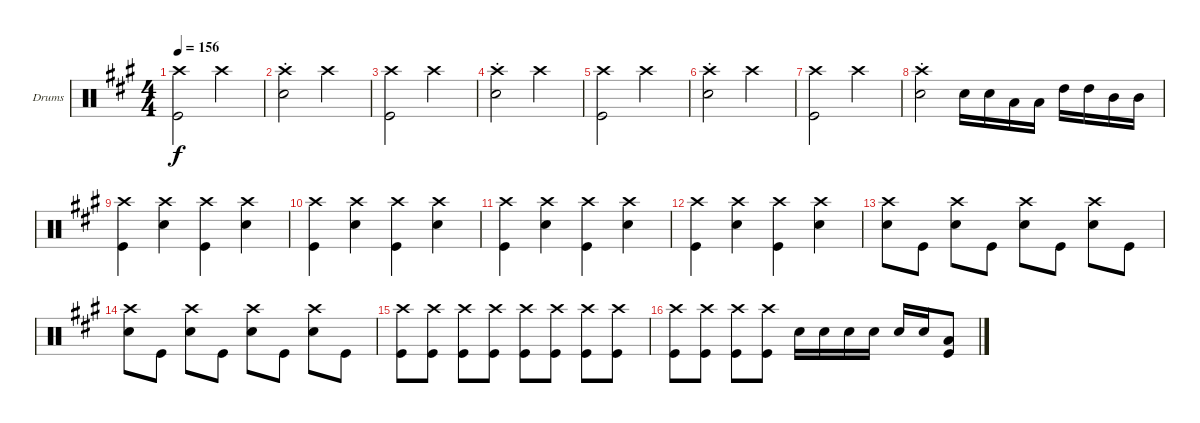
\defaultSystemsLayout 4
\bracketExtendMode groupsimilarinstruments
\firstSystemTrackNameOrientation horizontal
\otherSystemsTrackNameOrientation horizontal
\track ("Drums" "Drums") {instrument percussion}
\staff {score}
\articulation defaults
\ts (4 4)
\tempo 156
\clef neutral
\ks a
("Kick (hit)" "Crash high (hit)").2{dy f} "Crash high (hit)".2 |
("Crash high (hit)"{st} "Snare (hit) 2"{st}).2 "Crash high (hit)".2 |
("Kick (hit)" "Crash high (hit)").2 "Crash high (hit)".2 |
("Crash high (hit)"{st} "Snare (hit) 2"{st}).2 "Crash high (hit)".2 |
("Kick (hit)" "Crash high (hit)").2 "Crash high (hit)".2 |
("Crash high (hit)"{st} "Snare (hit) 2"{st}).2 "Crash high (hit)".2 |
("Kick (hit)" "Crash high (hit)").2 "Crash high (hit)".2 |
("Crash high (hit)"{st} "Snare (hit) 2"{st}).2 "Snare (hit) 2".16 "Snare (hit) 2".16 "Low Tom (hit)".16 "Low Tom (hit)".16 "High Tom (hit)".16 "High Tom (hit)".16 "Mid Tom (hit)".16 "Mid Tom (hit)".16 |
("Kick (hit)" "Crash high (hit)").4 ("Crash high (hit)" "Snare (hit) 2").4 ("Kick (hit)" "Crash high (hit)").4 ("Crash high (hit)" "Snare (hit) 2").4 |
("Kick (hit)" "Crash high (hit)").4 ("Crash high (hit)" "Snare (hit) 2").4 ("Kick (hit)" "Crash high (hit)").4 ("Crash high (hit)" "Snare (hit) 2").4 |
("Kick (hit)" "Crash high (hit)").4 ("Crash high (hit)" "Snare (hit) 2").4 ("Kick (hit)" "Crash high (hit)").4 ("Crash high (hit)" "Snare (hit) 2").4 |
("Kick (hit)" "Crash high (hit)").4 ("Crash high (hit)" "Snare (hit) 2").4 ("Kick (hit)" "Crash high (hit)").4 ("Crash high (hit)" "Snare (hit) 2").4 |
("Snare (hit) 2" "Crash high (hit)").8 "Kick (hit)".8 ("Snare (hit) 2" "Crash high (hit)").8 "Kick (hit)".8 ("Snare (hit) 2" "Crash high (hit)").8 "Kick (hit)".8 ("Snare (hit) 2" "Crash high (hit)").8 "Kick (hit)".8 |
("Snare (hit) 2" "Crash high (hit)").8 "Kick (hit)".8 ("Snare (hit) 2" "Crash high (hit)").8 "Kick (hit)".8 ("Snare (hit) 2" "Crash high (hit)").8 "Kick (hit)".8 ("Snare (hit) 2" "Crash high (hit)").8 "Kick (hit)".8 |
("Kick (hit)" "Crash high (hit)").8 ("Kick (hit)" "Crash high (hit)").8 ("Kick (hit)" "Crash high (hit)").8 ("Kick (hit)" "Crash high (hit)").8 ("Kick (hit)" "Crash high (hit)").8 ("Kick (hit)" "Crash high (hit)").8 ("Kick (hit)" "Crash high (hit)").8 ("Kick (hit)" "Crash high (hit)").8 |
("Kick (hit)" "Crash high (hit)").8 ("Kick (hit)" "Crash high (hit)").8 ("Kick (hit)" "Crash high (hit)").8 ("Kick (hit)" "Crash high (hit)").8 "Snare (hit) 2".16 "Snare (hit) 2".16 "Snare (hit) 2".16 "Snare (hit) 2".16 "Snare (hit) 2".16 "Snare (hit) 2".16 ("Kick (hit)" "Low Tom (hit)").8
